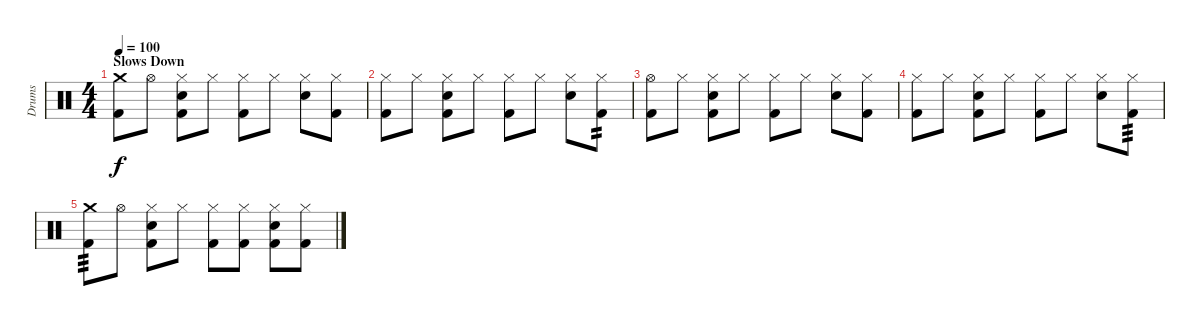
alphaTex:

\track ("Drums" "Drums") {instrument percussion}
\staff {score}
\articulation defaults
\ts (4 4)
\section ("" "Slows Down")
\tempo 100
\clef neutral
\ks c
("Kick (hit) 2" "Crash medium (hit)").8{dy f} "Hi-Hat (open)".8 ("Kick (hit) 2" "Snare (hit) 2" "Hi-Hat (closed)").8 "Hi-Hat (closed)".8 ("Kick (hit) 2" "Hi-Hat (closed)").8 "Hi-Hat (closed)".8 ("Snare (hit) 2" "Hi-Hat (closed)").8 ("Kick (hit) 2" "Hi-Hat (closed)").8 |
("Kick (hit) 2" "Hi-Hat (closed)").8 "Hi-Hat (closed)".8 ("Kick (hit) 2" "Snare (hit) 2" "Hi-Hat (closed)").8 "Hi-Hat (closed)".8 ("Kick (hit) 2" "Hi-Hat (closed)").8 "Hi-Hat (closed)".8 ("Snare (hit) 2" "Hi-Hat (closed)").8 ("Kick (hit) 2" "Hi-Hat (closed)").8{tp 2} |
("Kick (hit) 2" "Hi-Hat (open)").8 "Hi-Hat (closed)".8 ("Kick (hit) 2" "Snare (hit) 2" "Hi-Hat (closed)").8 "Hi-Hat (closed)".8 ("Kick (hit) 2" "Hi-Hat (closed)").8 "Hi-Hat (closed)".8 ("Snare (hit) 2" "Hi-Hat (closed)").8 ("Kick (hit) 2" "Hi-Hat (closed)").8 |
("Kick (hit) 2" "Hi-Hat (closed)").8 "Hi-Hat (closed)".8 ("Kick (hit) 2" "Snare (hit) 2" "Hi-Hat (closed)").8 "Hi-Hat (closed)".8 ("Kick (hit) 2" "Hi-Hat (closed)").8 "Hi-Hat (closed)".8 ("Snare (hit) 2" "Hi-Hat (closed)").8 ("Kick (hit) 2" "Hi-Hat (closed)").8{tp 3} |
("Kick (hit) 2" "Crash medium (hit)").8{tp 3} "Hi-Hat (open)".8 ("Kick (hit) 2" "Snare (hit) 2" "Hi-Hat (closed)").8 "Hi-Hat (closed)".8 ("Kick (hit) 2" "Hi-Hat (closed)").8 ("Kick (hit) 2" "Hi-Hat (closed)").8 ("Kick (hit) 2" "Snare (hit) 2" "Hi-Hat (closed)").8 ("Kick (hit) 2" "Hi-Hat (closed)").8
